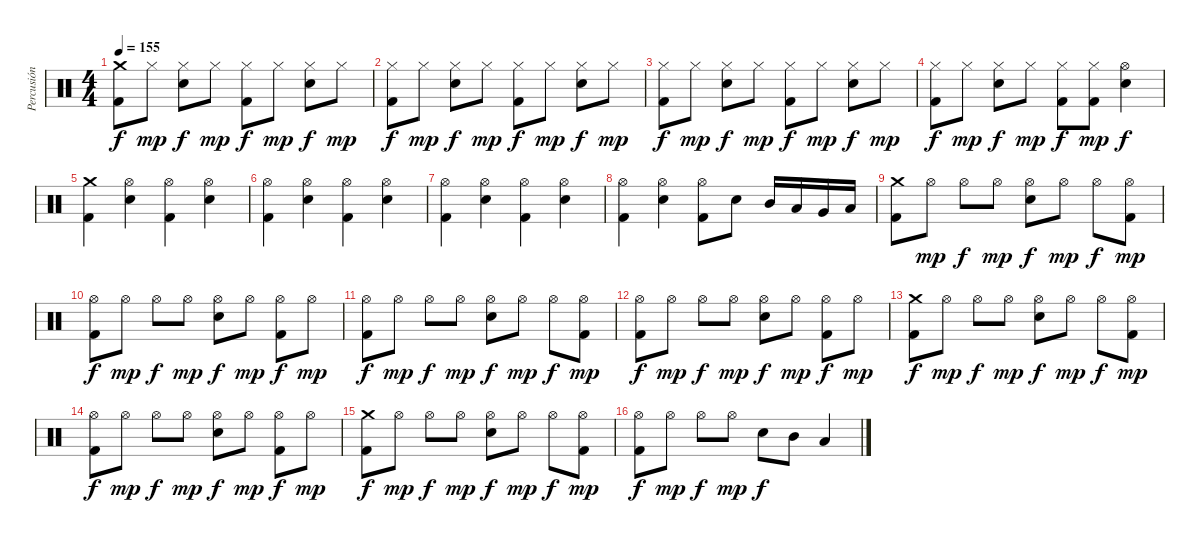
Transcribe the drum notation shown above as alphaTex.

\track ("Percusión" "Percusión") {instrument percussion}
\staff {score}
\articulation defaults
\ts (4 4)
\tempo 155
\clef neutral
\ks c
("Crash medium (hit)" "Kick (hit) 2").8{dy f} "Hi-Hat (closed)".8{dy mp} ("Hi-Hat (closed)" "Electric Snare (hit)").8{dy f} "Hi-Hat (closed)".8{dy mp} ("Hi-Hat (closed)" "Kick (hit) 2").8{dy f} "Hi-Hat (closed)".8{dy mp} ("Hi-Hat (closed)" "Electric Snare (hit)").8{dy f} "Hi-Hat (closed)".8{dy mp} |
("Hi-Hat (closed)" "Kick (hit) 2").8{dy f} "Hi-Hat (closed)".8{dy mp} ("Hi-Hat (closed)" "Electric Snare (hit)").8{dy f} "Hi-Hat (closed)".8{dy mp} ("Hi-Hat (closed)" "Kick (hit) 2").8{dy f} "Hi-Hat (closed)".8{dy mp} ("Hi-Hat (closed)" "Electric Snare (hit)").8{dy f} "Hi-Hat (closed)".8{dy mp} |
("Hi-Hat (closed)" "Kick (hit) 2").8{dy f} "Hi-Hat (closed)".8{dy mp} ("Hi-Hat (closed)" "Electric Snare (hit)").8{dy f} "Hi-Hat (closed)".8{dy mp} ("Hi-Hat (closed)" "Kick (hit) 2").8{dy f} "Hi-Hat (closed)".8{dy mp} ("Hi-Hat (closed)" "Electric Snare (hit)").8{dy f} "Hi-Hat (closed)".8{dy mp} |
("Hi-Hat (closed)" "Kick (hit) 2").8{dy f} "Hi-Hat (closed)".8{dy mp} ("Hi-Hat (closed)" "Electric Snare (hit)").8{dy f} "Hi-Hat (closed)".8{dy mp} ("Hi-Hat (closed)" "Kick (hit) 2").8{dy f} ("Hi-Hat (closed)" "Kick (hit) 2").8{dy mp} ("Hi-Hat (open)" "Electric Snare (hit)").4{dy f} |
("Crash medium (hit)" "Kick (hit) 2").4 ("Hi-Hat (open)" "Electric Snare (hit)").4 ("Hi-Hat (open)" "Kick (hit) 2").4 ("Hi-Hat (open)" "Electric Snare (hit)").4 |
("Hi-Hat (open)" "Kick (hit) 2").4 ("Hi-Hat (open)" "Electric Snare (hit)").4 ("Hi-Hat (open)" "Kick (hit) 2").4 ("Hi-Hat (open)" "Electric Snare (hit)").4 |
("Hi-Hat (open)" "Kick (hit) 2").4 ("Hi-Hat (open)" "Electric Snare (hit)").4 ("Hi-Hat (open)" "Kick (hit) 2").4 ("Hi-Hat (open)" "Electric Snare (hit)").4 |
("Hi-Hat (open)" "Kick (hit) 2").4 ("Hi-Hat (open)" "Electric Snare (hit)").4 ("Hi-Hat (open)" "Kick (hit) 2").8 "Electric Snare (hit)".8 "Mid Tom (hit)".16 "Low Tom (hit)".16 "Very Low Tom (hit)".16 "Low Floor Tom (hit)".16 |
("Crash medium (hit)" "Kick (hit) 2").8 "Hi-Hat (open)".8{dy mp} "Hi-Hat (open)".8{dy f} "Hi-Hat (open)".8{dy mp} ("Hi-Hat (open)" "Electric Snare (hit)").8{dy f} "Hi-Hat (open)".8{dy mp} "Hi-Hat (open)".8{dy f} ("Hi-Hat (open)" "Kick (hit) 2").8{dy mp} |
("Hi-Hat (open)" "Kick (hit) 2").8{dy f} "Hi-Hat (open)".8{dy mp} "Hi-Hat (open)".8{dy f} "Hi-Hat (open)".8{dy mp} ("Hi-Hat (open)" "Electric Snare (hit)").8{dy f} "Hi-Hat (open)".8{dy mp} ("Hi-Hat (open)" "Kick (hit) 2").8{dy f} "Hi-Hat (open)".8{dy mp} |
("Hi-Hat (open)" "Kick (hit) 2").8{dy f} "Hi-Hat (open)".8{dy mp} "Hi-Hat (open)".8{dy f} "Hi-Hat (open)".8{dy mp} ("Hi-Hat (open)" "Electric Snare (hit)").8{dy f} "Hi-Hat (open)".8{dy mp} "Hi-Hat (open)".8{dy f} ("Hi-Hat (open)" "Kick (hit) 2").8{dy mp} |
("Hi-Hat (open)" "Kick (hit) 2").8{dy f} "Hi-Hat (open)".8{dy mp} "Hi-Hat (open)".8{dy f} "Hi-Hat (open)".8{dy mp} ("Hi-Hat (open)" "Electric Snare (hit)").8{dy f} "Hi-Hat (open)".8{dy mp} ("Hi-Hat (open)" "Kick (hit) 2").8{dy f} "Hi-Hat (open)".8{dy mp} |
("Crash medium (hit)" "Kick (hit) 2").8{dy f} "Hi-Hat (open)".8{dy mp} "Hi-Hat (open)".8{dy f} "Hi-Hat (open)".8{dy mp} ("Hi-Hat (open)" "Electric Snare (hit)").8{dy f} "Hi-Hat (open)".8{dy mp} "Hi-Hat (open)".8{dy f} ("Hi-Hat (open)" "Kick (hit) 2").8{dy mp} |
("Hi-Hat (open)" "Kick (hit) 2").8{dy f} "Hi-Hat (open)".8{dy mp} "Hi-Hat (open)".8{dy f} "Hi-Hat (open)".8{dy mp} ("Hi-Hat (open)" "Electric Snare (hit)").8{dy f} "Hi-Hat (open)".8{dy mp} ("Hi-Hat (open)" "Kick (hit) 2").8{dy f} "Hi-Hat (open)".8{dy mp} |
("Crash medium (hit)" "Kick (hit) 2").8{dy f} "Hi-Hat (open)".8{dy mp} "Hi-Hat (open)".8{dy f} "Hi-Hat (open)".8{dy mp} ("Hi-Hat (open)" "Electric Snare (hit)").8{dy f} "Hi-Hat (open)".8{dy mp} "Hi-Hat (open)".8{dy f} ("Hi-Hat (open)" "Kick (hit) 2").8{dy mp} |
("Hi-Hat (open)" "Kick (hit) 2").8{dy f} "Hi-Hat (open)".8{dy mp} "Hi-Hat (open)".8{dy f} "Hi-Hat (open)".8{dy mp} "Electric Snare (hit)".8{dy f} "Mid Tom (hit)".8 "Low Tom (hit)".4
